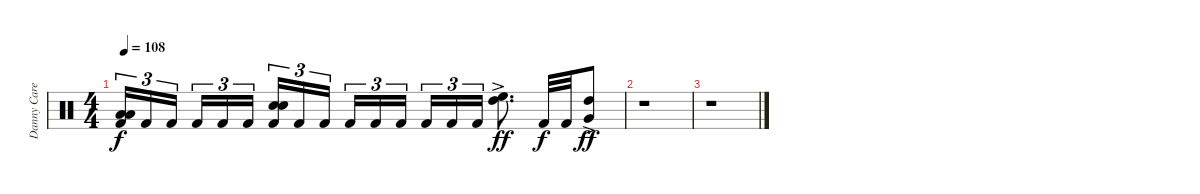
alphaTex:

\track ("Danny Carey" "Danny Care") {instrument percussion}
\staff {score}
\articulation defaults
\ts (4 4)
\tempo 108
\clef neutral
\ks c
("Low Floor Tom (hit)" "Low Floor Tom (hit)" "Kick (hit) 2").16{tu (3 2) dy f} "Kick (hit) 2".16{tu (3 2)} "Kick (hit) 2".16{tu (3 2) beam splitsecondary} "Kick (hit) 2".16{tu (3 2)} "Kick (hit) 2".16{tu (3 2)} "Kick (hit) 2".16{tu (3 2)} ("Electric Snare (hit)" "Electric Snare (hit)" "Kick (hit) 2").16{tu (3 2)} "Kick (hit) 2".16{tu (3 2)} "Kick (hit) 2".16{tu (3 2) beam splitsecondary} "Kick (hit) 2".16{tu (3 2)} "Kick (hit) 2".16{tu (3 2)} "Kick (hit) 2".16{tu (3 2)} "Kick (hit) 2".16{tu (3 2)} "Kick (hit) 2".16{tu (3 2)} "Kick (hit) 2".16{tu (3 2)} ("High Floor Tom (hit)"{ac} "High Tom (hit)"{ac}).8{d dy ff} "Kick (hit) 2".32{dy f} "Kick (hit) 2".32 ("High Tom (hit)"{ac} "Very Low Tom (hit)"{ac}).8{dy ff} |
r.1 |
r.1
